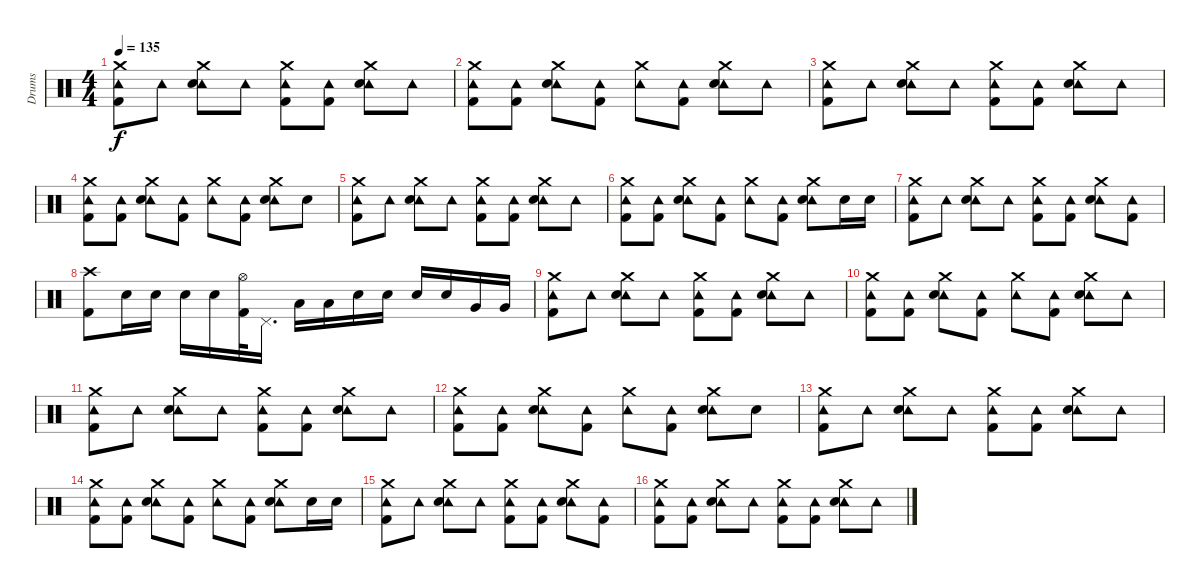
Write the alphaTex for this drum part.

\track ("Drums" "Drums") {solo instrument percussion bank 34}
\staff {score}
\articulation defaults
\ts (4 4)
\tempo 135
\clef neutral
\ks c
("Crash medium (hit)" "Tambourine (hit)" "Kick (hit) 2").8{dy f} "Tambourine (hit)".8 ("Crash medium (hit)" "Tambourine (hit)" "Electric Snare (hit)").8 "Tambourine (hit)".8 ("Crash medium (hit)" "Tambourine (hit)" "Kick (hit) 2").8 ("Tambourine (hit)" "Kick (hit) 2").8 ("Crash medium (hit)" "Tambourine (hit)" "Electric Snare (hit)").8 "Tambourine (hit)".8 |
("Crash medium (hit)" "Tambourine (hit)" "Kick (hit) 2").8 ("Tambourine (hit)" "Kick (hit) 2").8 ("Crash medium (hit)" "Tambourine (hit)" "Electric Snare (hit)").8 ("Tambourine (hit)" "Kick (hit) 2").8 ("Crash medium (hit)" "Tambourine (hit)").8 ("Tambourine (hit)" "Kick (hit) 2").8 ("Crash medium (hit)" "Tambourine (hit)" "Electric Snare (hit)").8 "Tambourine (hit)".8 |
("Crash medium (hit)" "Tambourine (hit)" "Kick (hit) 2").8 "Tambourine (hit)".8 ("Crash medium (hit)" "Tambourine (hit)" "Electric Snare (hit)").8 "Tambourine (hit)".8 ("Crash medium (hit)" "Tambourine (hit)" "Kick (hit) 2").8 ("Tambourine (hit)" "Kick (hit) 2").8 ("Crash medium (hit)" "Tambourine (hit)" "Electric Snare (hit)").8 "Tambourine (hit)".8 |
("Crash medium (hit)" "Tambourine (hit)" "Kick (hit) 2").8 ("Tambourine (hit)" "Kick (hit) 2").8 ("Crash medium (hit)" "Tambourine (hit)" "Electric Snare (hit)").8 ("Tambourine (hit)" "Kick (hit) 2").8 ("Crash medium (hit)" "Tambourine (hit)").8 ("Tambourine (hit)" "Kick (hit) 2").8 ("Crash medium (hit)" "Tambourine (hit)" "Electric Snare (hit)").8 "Electric Snare (hit)".8 |
("Crash medium (hit)" "Tambourine (hit)" "Kick (hit) 2").8 "Tambourine (hit)".8 ("Crash medium (hit)" "Tambourine (hit)" "Electric Snare (hit)").8 "Tambourine (hit)".8 ("Crash medium (hit)" "Tambourine (hit)" "Kick (hit) 2").8 ("Tambourine (hit)" "Kick (hit) 2").8 ("Crash medium (hit)" "Tambourine (hit)" "Electric Snare (hit)").8 "Tambourine (hit)".8 |
("Crash medium (hit)" "Tambourine (hit)" "Kick (hit) 2").8 ("Tambourine (hit)" "Kick (hit) 2").8 ("Crash medium (hit)" "Tambourine (hit)" "Electric Snare (hit)").8 ("Tambourine (hit)" "Kick (hit) 2").8 ("Crash medium (hit)" "Tambourine (hit)").8 ("Tambourine (hit)" "Kick (hit) 2").8 ("Crash medium (hit)" "Tambourine (hit)" "Electric Snare (hit)").8 "Electric Snare (hit)".16 "Electric Snare (hit)".16 |
("Crash medium (hit)" "Tambourine (hit)" "Kick (hit) 2").8 "Tambourine (hit)".8 ("Crash medium (hit)" "Tambourine (hit)" "Electric Snare (hit)").8 "Tambourine (hit)".8 ("Crash medium (hit)" "Tambourine (hit)" "Kick (hit) 2").8 ("Tambourine (hit)" "Kick (hit) 2").8 ("Crash medium (hit)" "Tambourine (hit)" "Electric Snare (hit)").8 ("Tambourine (hit)" "Kick (hit) 2").8 |
("Crash high (hit)" "Kick (hit) 2").8 "Electric Snare (hit)".16 "Electric Snare (hit)".16 "Electric Snare (hit)".16 "Electric Snare (hit)".16 ("Hi-Hat (open)" "Kick (hit) 2").32 "Pedal Hi-Hat (hit)".16{d} "Low Tom (hit)".16 "Low Tom (hit)".16 "Electric Snare (hit)".16 "Electric Snare (hit)".16 "Electric Snare (hit)".16 "Electric Snare (hit)".16 "Very Low Tom (hit)".16 "Very Low Tom (hit)".16 |
("Crash medium (hit)" "Tambourine (hit)" "Kick (hit) 2").8 "Tambourine (hit)".8 ("Crash medium (hit)" "Tambourine (hit)" "Electric Snare (hit)").8 "Tambourine (hit)".8 ("Crash medium (hit)" "Tambourine (hit)" "Kick (hit) 2").8 ("Tambourine (hit)" "Kick (hit) 2").8 ("Crash medium (hit)" "Tambourine (hit)" "Electric Snare (hit)").8 "Tambourine (hit)".8 |
("Crash medium (hit)" "Tambourine (hit)" "Kick (hit) 2").8 ("Tambourine (hit)" "Kick (hit) 2").8 ("Crash medium (hit)" "Tambourine (hit)" "Electric Snare (hit)").8 ("Tambourine (hit)" "Kick (hit) 2").8 ("Crash medium (hit)" "Tambourine (hit)").8 ("Tambourine (hit)" "Kick (hit) 2").8 ("Crash medium (hit)" "Tambourine (hit)" "Electric Snare (hit)").8 "Tambourine (hit)".8 |
("Crash medium (hit)" "Tambourine (hit)" "Kick (hit) 2").8 "Tambourine (hit)".8 ("Crash medium (hit)" "Tambourine (hit)" "Electric Snare (hit)").8 "Tambourine (hit)".8 ("Crash medium (hit)" "Tambourine (hit)" "Kick (hit) 2").8 ("Tambourine (hit)" "Kick (hit) 2").8 ("Crash medium (hit)" "Tambourine (hit)" "Electric Snare (hit)").8 "Tambourine (hit)".8 |
("Crash medium (hit)" "Tambourine (hit)" "Kick (hit) 2").8 ("Tambourine (hit)" "Kick (hit) 2").8 ("Crash medium (hit)" "Tambourine (hit)" "Electric Snare (hit)").8 ("Tambourine (hit)" "Kick (hit) 2").8 ("Crash medium (hit)" "Tambourine (hit)").8 ("Tambourine (hit)" "Kick (hit) 2").8 ("Crash medium (hit)" "Tambourine (hit)" "Electric Snare (hit)").8 "Electric Snare (hit)".8 |
("Crash medium (hit)" "Tambourine (hit)" "Kick (hit) 2").8 "Tambourine (hit)".8 ("Crash medium (hit)" "Tambourine (hit)" "Electric Snare (hit)").8 "Tambourine (hit)".8 ("Crash medium (hit)" "Tambourine (hit)" "Kick (hit) 2").8 ("Tambourine (hit)" "Kick (hit) 2").8 ("Crash medium (hit)" "Tambourine (hit)" "Electric Snare (hit)").8 "Tambourine (hit)".8 |
("Crash medium (hit)" "Tambourine (hit)" "Kick (hit) 2").8 ("Tambourine (hit)" "Kick (hit) 2").8 ("Crash medium (hit)" "Tambourine (hit)" "Electric Snare (hit)").8 ("Tambourine (hit)" "Kick (hit) 2").8 ("Crash medium (hit)" "Tambourine (hit)").8 ("Tambourine (hit)" "Kick (hit) 2").8 ("Crash medium (hit)" "Tambourine (hit)" "Electric Snare (hit)").8 "Electric Snare (hit)".16 "Electric Snare (hit)".16 |
("Crash medium (hit)" "Tambourine (hit)" "Kick (hit) 2").8 "Tambourine (hit)".8 ("Crash medium (hit)" "Tambourine (hit)" "Electric Snare (hit)").8 "Tambourine (hit)".8 ("Crash medium (hit)" "Tambourine (hit)" "Kick (hit) 2").8 ("Tambourine (hit)" "Kick (hit) 2").8 ("Crash medium (hit)" "Tambourine (hit)" "Electric Snare (hit)").8 ("Tambourine (hit)" "Kick (hit) 2").8 |
("Crash medium (hit)" "Tambourine (hit)" "Kick (hit) 2").8 ("Tambourine (hit)" "Kick (hit) 2").8 ("Crash medium (hit)" "Tambourine (hit)" "Electric Snare (hit)").8 "Tambourine (hit)".8 ("Crash medium (hit)" "Tambourine (hit)" "Kick (hit) 2").8 ("Tambourine (hit)" "Kick (hit) 2").8 ("Crash medium (hit)" "Tambourine (hit)" "Electric Snare (hit)").8 "Tambourine (hit)".8
